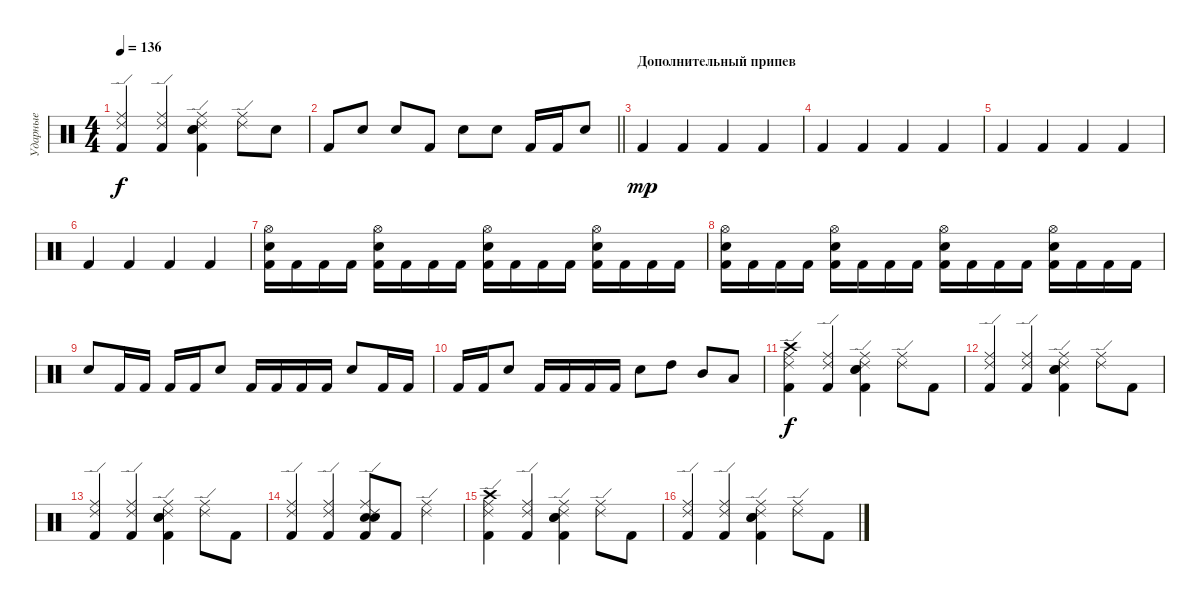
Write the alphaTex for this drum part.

\track ("Ударные" "Ударные") {instrument percussion}
\staff {score}
\articulation defaults
\ts (4 4)
\tempo 136
\clef neutral
\ks c
("Ride (edge) 2" "Ride (middle)" "Kick (hit) 2").4{dy f} ("Ride (edge) 2" "Ride (middle)" "Kick (hit) 2").4 ("Ride (edge) 2" "Snare (hit) 2" "Ride (middle)" "Snare (hit) 2" "Kick (hit) 2").4 ("Ride (middle)" "Ride (edge) 2").8 "Snare (hit) 2".8 |
\barLineRight lightlight "Kick (hit) 2".8 "Snare (hit) 2".8 "Snare (hit) 2".8 "Kick (hit) 2".8 "Snare (hit) 2".8 "Snare (hit) 2".8 "Kick (hit) 2".16 "Kick (hit) 2".16 "Snare (hit) 2".8
|
\section ("" "Дополнительный припев")
"Kick (hit) 2".4{dy mp} "Kick (hit) 2".4 "Kick (hit) 2".4 "Kick (hit) 2".4 |
"Kick (hit) 2".4 "Kick (hit) 2".4 "Kick (hit) 2".4 "Kick (hit) 2".4 |
"Kick (hit) 2".4 "Kick (hit) 2".4 "Kick (hit) 2".4 "Kick (hit) 2".4 |
"Kick (hit) 2".4 "Kick (hit) 2".4 "Kick (hit) 2".4 "Kick (hit) 2".4 |
("Kick (hit) 2" "Snare (hit) 2" "Hi-Hat (open)").16 "Kick (hit) 2".16 "Kick (hit) 2".16 "Kick (hit) 2".16 ("Kick (hit) 2" "Snare (hit) 2" "Hi-Hat (open)").16 "Kick (hit) 2".16 "Kick (hit) 2".16 "Kick (hit) 2".16 ("Kick (hit) 2" "Snare (hit) 2" "Hi-Hat (open)").16 "Kick (hit) 2".16 "Kick (hit) 2".16 "Kick (hit) 2".16 ("Kick (hit) 2" "Snare (hit) 2" "Hi-Hat (open)").16 "Kick (hit) 2".16 "Kick (hit) 2".16 "Kick (hit) 2".16 |
("Kick (hit) 2" "Snare (hit) 2" "Hi-Hat (open)").16 "Kick (hit) 2".16 "Kick (hit) 2".16 "Kick (hit) 2".16 ("Kick (hit) 2" "Snare (hit) 2" "Hi-Hat (open)").16 "Kick (hit) 2".16 "Kick (hit) 2".16 "Kick (hit) 2".16 ("Kick (hit) 2" "Snare (hit) 2" "Hi-Hat (open)").16 "Kick (hit) 2".16 "Kick (hit) 2".16 "Kick (hit) 2".16 ("Kick (hit) 2" "Snare (hit) 2" "Hi-Hat (open)").16 "Kick (hit) 2".16 "Kick (hit) 2".16 "Kick (hit) 2".16 |
"Snare (hit) 2".8 "Kick (hit) 2".16 "Kick (hit) 2".16 "Kick (hit) 2".16 "Kick (hit) 2".16 "Snare (hit) 2".8 "Kick (hit) 2".16 "Kick (hit) 2".16 "Kick (hit) 2".16 "Kick (hit) 2".16 "Snare (hit) 2".8 "Kick (hit) 2".16 "Kick (hit) 2".16 |
"Kick (hit) 2".16 "Kick (hit) 2".16 "Snare (hit) 2".8 "Kick (hit) 2".16 "Kick (hit) 2".16 "Kick (hit) 2".16 "Kick (hit) 2".16 "Snare (hit) 2".8 "High Tom (hit)".8 "Mid Tom (hit)".8 "Low Tom (hit)".8 |
("Ride (middle)" "Ride (edge) 2" "Crash high (hit)" "Kick (hit) 2").4{dy f} ("Ride (middle)" "Ride (edge) 2" "Kick (hit) 2").4 ("Ride (middle)" "Snare (hit) 2" "Ride (edge) 2" "Snare (hit) 2" "Kick (hit) 2").4 ("Ride (middle)" "Ride (edge) 2").8 "Kick (hit) 2".8 |
("Ride (middle)" "Ride (edge) 2" "Kick (hit) 2").4 ("Ride (middle)" "Ride (edge) 2" "Kick (hit) 2").4 ("Ride (middle)" "Snare (hit) 2" "Ride (edge) 2" "Snare (hit) 2" "Kick (hit) 2").4 ("Ride (middle)" "Ride (edge) 2").8 "Kick (hit) 2".8 |
("Ride (middle)" "Ride (edge) 2" "Kick (hit) 2").4 ("Ride (middle)" "Ride (edge) 2" "Kick (hit) 2").4 ("Ride (middle)" "Snare (hit) 2" "Ride (edge) 2" "Snare (hit) 2" "Kick (hit) 2").4 ("Ride (middle)" "Ride (edge) 2").8 "Kick (hit) 2".8 |
("Ride (middle)" "Ride (edge) 2" "Kick (hit) 2").4 ("Ride (middle)" "Ride (edge) 2" "Kick (hit) 2").4 ("Ride (middle)" "Snare (hit) 2" "Ride (edge) 2" "Snare (hit) 2" "Kick (hit) 2").8 "Kick (hit) 2".8 ("Ride (edge) 2" "Ride (middle)").4 |
("Ride (edge) 2" "Crash high (hit)" "Ride (middle)" "Kick (hit) 2").4 ("Ride (edge) 2" "Ride (middle)" "Kick (hit) 2").4 ("Ride (edge) 2" "Snare (hit) 2" "Ride (middle)" "Snare (hit) 2" "Kick (hit) 2").4 ("Ride (edge) 2" "Ride (middle)").8 "Kick (hit) 2".8 |
("Ride (edge) 2" "Ride (middle)" "Kick (hit) 2").4 ("Ride (edge) 2" "Ride (middle)" "Kick (hit) 2").4 ("Ride (edge) 2" "Snare (hit) 2" "Ride (middle)" "Snare (hit) 2" "Kick (hit) 2").4 ("Ride (edge) 2" "Ride (middle)").8 "Kick (hit) 2".8
